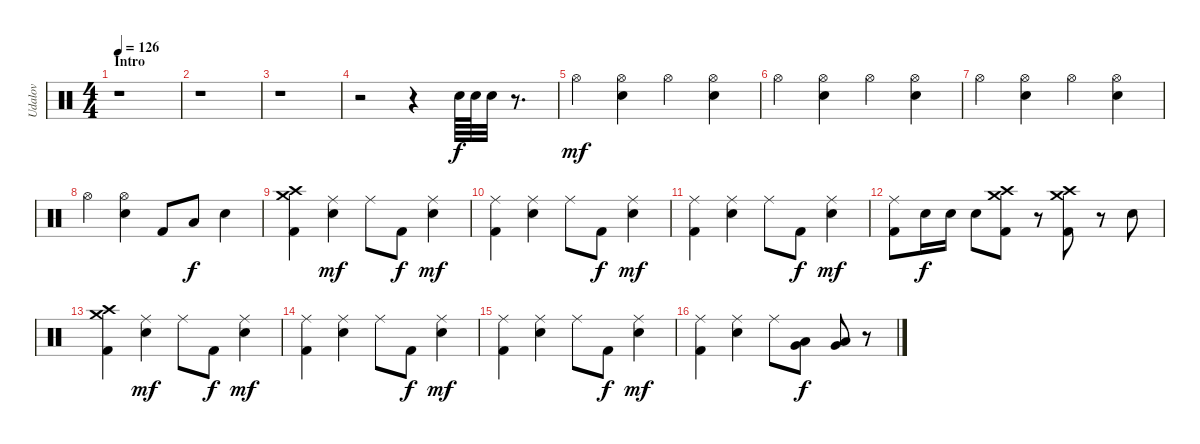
\track ("Udalov" "Udalov") {instrument percussion}
\staff {score}
\articulation defaults
\ts (4 4)
\section ("" "Intro")
\tempo 126
\clef neutral
\ks c
r.1{dy f} |
r.1 |
r.1 |
r.2 r.4 "Snare (hit) 2".64 "Snare (hit) 2".64 "Snare (hit) 2".32 r.8{d} |
"Hi-Hat (open)".4{dy mf} ("Hi-Hat (open)" "Snare (hit) 2").4 "Hi-Hat (open)".4 ("Hi-Hat (open)" "Snare (hit) 2").4 |
"Hi-Hat (open)".4 ("Hi-Hat (open)" "Snare (hit) 2").4 "Hi-Hat (open)".4 ("Hi-Hat (open)" "Snare (hit) 2").4 |
"Hi-Hat (open)".4 ("Hi-Hat (open)" "Snare (hit) 2").4 "Hi-Hat (open)".4 ("Hi-Hat (open)" "Snare (hit) 2").4 |
"Hi-Hat (open)".4 ("Hi-Hat (open)" "Snare (hit) 2").4 "Kick (hit) 2".8 "Low Tom (hit)".8{dy f} "Snare (hit) 2".4 |
("Kick (hit) 2" "Crash high (hit)" "Crash medium (hit)").4 ("Snare (hit) 2" "Ride (middle)").4{dy mf} "Ride (middle)".8 "Kick (hit) 2".8{dy f} ("Snare (hit) 2" "Ride (middle)").4{dy mf} |
("Kick (hit) 2" "Ride (middle)").4 ("Snare (hit) 2" "Ride (middle)").4 "Ride (middle)".8 "Kick (hit) 2".8{dy f} ("Snare (hit) 2" "Ride (middle)").4{dy mf} |
("Kick (hit) 2" "Ride (middle)").4 ("Snare (hit) 2" "Ride (middle)").4 "Ride (middle)".8 "Kick (hit) 2".8{dy f} ("Snare (hit) 2" "Ride (middle)").4{dy mf} |
("Kick (hit) 2" "Ride (middle)").8 "Snare (hit) 2".16{dy f} "Snare (hit) 2".16 "Snare (hit) 2".8 ("Kick (hit) 2" "Crash high (hit)" "Crash medium (hit)").8 r.8 ("Kick (hit) 2" "Crash high (hit)" "Crash medium (hit)").8 r.8 "Snare (hit) 2".8 |
("Kick (hit) 2" "Crash high (hit)" "Crash medium (hit)").4 ("Snare (hit) 2" "Ride (middle)").4{dy mf} "Ride (middle)".8 "Kick (hit) 2".8{dy f} ("Snare (hit) 2" "Ride (middle)").4{dy mf} |
("Kick (hit) 2" "Ride (middle)").4 ("Snare (hit) 2" "Ride (middle)").4 "Ride (middle)".8 "Kick (hit) 2".8{dy f} ("Snare (hit) 2" "Ride (middle)").4{dy mf} |
("Kick (hit) 2" "Ride (middle)").4 ("Snare (hit) 2" "Ride (middle)").4 "Ride (middle)".8 "Kick (hit) 2".8{dy f} ("Snare (hit) 2" "Ride (middle)").4{dy mf} |
("Kick (hit) 2" "Ride (middle)").4 ("Snare (hit) 2" "Ride (middle)").4 "Ride (middle)".8 ("Low Tom (hit)" "Very Low Tom (hit)").8{dy f} ("Low Tom (hit)" "Very Low Tom (hit)").8 r.8
